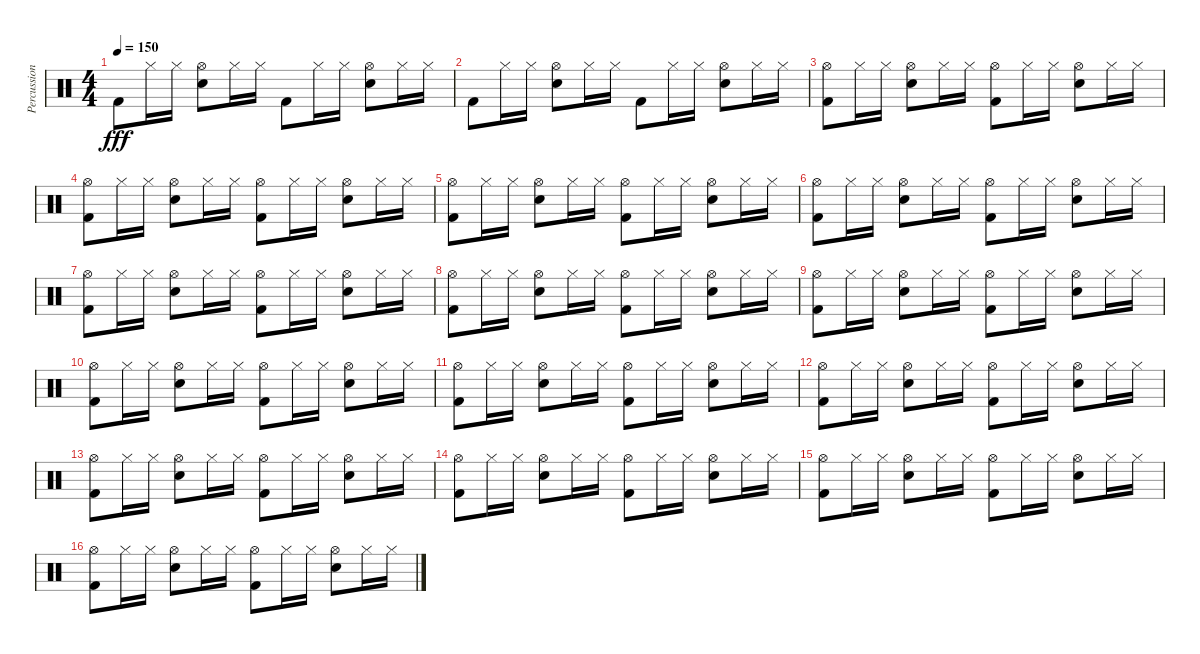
\track ("Percussion" "Percussion") {instrument percussion}
\staff {score}
\articulation defaults
\ts (4 4)
\tempo 150
\clef neutral
\ks c "Kick (hit) 2".8{dy fff} "Hi-Hat (closed)".16 "Hi-Hat (closed)".16
("Snare (hit) 2" "Hi-Hat (open)").8 "Hi-Hat (closed)".16 "Hi-Hat (closed)".16 "Kick (hit) 2".8 "Hi-Hat (closed)".16 "Hi-Hat (closed)".16 ("Snare (hit) 2" "Hi-Hat (open)").8 "Hi-Hat (closed)".16 "Hi-Hat (closed)".16 |
"Kick (hit) 2".8 "Hi-Hat (closed)".16 "Hi-Hat (closed)".16 ("Snare (hit) 2" "Hi-Hat (open)").8 "Hi-Hat (closed)".16 "Hi-Hat (closed)".16 "Kick (hit) 2".8 "Hi-Hat (closed)".16 "Hi-Hat (closed)".16 ("Snare (hit) 2" "Hi-Hat (open)").8 "Hi-Hat (closed)".16 "Hi-Hat (closed)".16 |
("Kick (hit) 2" "Hi-Hat (open)").8 "Hi-Hat (closed)".16 "Hi-Hat (closed)".16 ("Snare (hit) 2" "Hi-Hat (open)").8 "Hi-Hat (closed)".16 "Hi-Hat (closed)".16 ("Kick (hit) 2" "Hi-Hat (open)").8 "Hi-Hat (closed)".16 "Hi-Hat (closed)".16 ("Snare (hit) 2" "Hi-Hat (open)").8 "Hi-Hat (closed)".16 "Hi-Hat (closed)".16 |
("Kick (hit) 2" "Hi-Hat (open)").8 "Hi-Hat (closed)".16 "Hi-Hat (closed)".16 ("Snare (hit) 2" "Hi-Hat (open)").8 "Hi-Hat (closed)".16 "Hi-Hat (closed)".16 ("Kick (hit) 2" "Hi-Hat (open)").8 "Hi-Hat (closed)".16 "Hi-Hat (closed)".16 ("Snare (hit) 2" "Hi-Hat (open)").8 "Hi-Hat (closed)".16 "Hi-Hat (closed)".16 |
("Kick (hit) 2" "Hi-Hat (open)").8 "Hi-Hat (closed)".16 "Hi-Hat (closed)".16 ("Snare (hit) 2" "Hi-Hat (open)").8 "Hi-Hat (closed)".16 "Hi-Hat (closed)".16 ("Kick (hit) 2" "Hi-Hat (open)").8 "Hi-Hat (closed)".16 "Hi-Hat (closed)".16 ("Snare (hit) 2" "Hi-Hat (open)").8 "Hi-Hat (closed)".16 "Hi-Hat (closed)".16 |
("Kick (hit) 2" "Hi-Hat (open)").8 "Hi-Hat (closed)".16 "Hi-Hat (closed)".16 ("Snare (hit) 2" "Hi-Hat (open)").8 "Hi-Hat (closed)".16 "Hi-Hat (closed)".16 ("Kick (hit) 2" "Hi-Hat (open)").8 "Hi-Hat (closed)".16 "Hi-Hat (closed)".16 ("Snare (hit) 2" "Hi-Hat (open)").8 "Hi-Hat (closed)".16 "Hi-Hat (closed)".16 |
("Kick (hit) 2" "Hi-Hat (open)").8 "Hi-Hat (closed)".16 "Hi-Hat (closed)".16 ("Snare (hit) 2" "Hi-Hat (open)").8 "Hi-Hat (closed)".16 "Hi-Hat (closed)".16 ("Kick (hit) 2" "Hi-Hat (open)").8 "Hi-Hat (closed)".16 "Hi-Hat (closed)".16 ("Snare (hit) 2" "Hi-Hat (open)").8 "Hi-Hat (closed)".16 "Hi-Hat (closed)".16 |
("Kick (hit) 2" "Hi-Hat (open)").8 "Hi-Hat (closed)".16 "Hi-Hat (closed)".16 ("Snare (hit) 2" "Hi-Hat (open)").8 "Hi-Hat (closed)".16 "Hi-Hat (closed)".16 ("Kick (hit) 2" "Hi-Hat (open)").8 "Hi-Hat (closed)".16 "Hi-Hat (closed)".16 ("Snare (hit) 2" "Hi-Hat (open)").8 "Hi-Hat (closed)".16 "Hi-Hat (closed)".16 |
("Kick (hit) 2" "Hi-Hat (open)").8 "Hi-Hat (closed)".16 "Hi-Hat (closed)".16 ("Snare (hit) 2" "Hi-Hat (open)").8 "Hi-Hat (closed)".16 "Hi-Hat (closed)".16 ("Kick (hit) 2" "Hi-Hat (open)").8 "Hi-Hat (closed)".16 "Hi-Hat (closed)".16 ("Snare (hit) 2" "Hi-Hat (open)").8 "Hi-Hat (closed)".16 "Hi-Hat (closed)".16 |
("Kick (hit) 2" "Hi-Hat (open)").8 "Hi-Hat (closed)".16 "Hi-Hat (closed)".16 ("Snare (hit) 2" "Hi-Hat (open)").8 "Hi-Hat (closed)".16 "Hi-Hat (closed)".16 ("Kick (hit) 2" "Hi-Hat (open)").8 "Hi-Hat (closed)".16 "Hi-Hat (closed)".16 ("Snare (hit) 2" "Hi-Hat (open)").8 "Hi-Hat (closed)".16 "Hi-Hat (closed)".16 |
("Kick (hit) 2" "Hi-Hat (open)").8 "Hi-Hat (closed)".16 "Hi-Hat (closed)".16 ("Snare (hit) 2" "Hi-Hat (open)").8 "Hi-Hat (closed)".16 "Hi-Hat (closed)".16 ("Kick (hit) 2" "Hi-Hat (open)").8 "Hi-Hat (closed)".16 "Hi-Hat (closed)".16 ("Snare (hit) 2" "Hi-Hat (open)").8 "Hi-Hat (closed)".16 "Hi-Hat (closed)".16 |
("Kick (hit) 2" "Hi-Hat (open)").8 "Hi-Hat (closed)".16 "Hi-Hat (closed)".16 ("Snare (hit) 2" "Hi-Hat (open)").8 "Hi-Hat (closed)".16 "Hi-Hat (closed)".16 ("Kick (hit) 2" "Hi-Hat (open)").8 "Hi-Hat (closed)".16 "Hi-Hat (closed)".16 ("Snare (hit) 2" "Hi-Hat (open)").8 "Hi-Hat (closed)".16 "Hi-Hat (closed)".16 |
("Kick (hit) 2" "Hi-Hat (open)").8 "Hi-Hat (closed)".16 "Hi-Hat (closed)".16 ("Snare (hit) 2" "Hi-Hat (open)").8 "Hi-Hat (closed)".16 "Hi-Hat (closed)".16 ("Kick (hit) 2" "Hi-Hat (open)").8 "Hi-Hat (closed)".16 "Hi-Hat (closed)".16 ("Snare (hit) 2" "Hi-Hat (open)").8 "Hi-Hat (closed)".16 "Hi-Hat (closed)".16 |
("Kick (hit) 2" "Hi-Hat (open)").8 "Hi-Hat (closed)".16 "Hi-Hat (closed)".16 ("Snare (hit) 2" "Hi-Hat (open)").8 "Hi-Hat (closed)".16 "Hi-Hat (closed)".16 ("Kick (hit) 2" "Hi-Hat (open)").8 "Hi-Hat (closed)".16 "Hi-Hat (closed)".16 ("Snare (hit) 2" "Hi-Hat (open)").8 "Hi-Hat (closed)".16 "Hi-Hat (closed)".16 |
("Kick (hit) 2" "Hi-Hat (open)").8 "Hi-Hat (closed)".16 "Hi-Hat (closed)".16 ("Snare (hit) 2" "Hi-Hat (open)").8 "Hi-Hat (closed)".16 "Hi-Hat (closed)".16 ("Kick (hit) 2" "Hi-Hat (open)").8 "Hi-Hat (closed)".16 "Hi-Hat (closed)".16 ("Snare (hit) 2" "Hi-Hat (open)").8 "Hi-Hat (closed)".16 "Hi-Hat (closed)".16 |
("Kick (hit) 2" "Hi-Hat (open)").8 "Hi-Hat (closed)".16 "Hi-Hat (closed)".16 ("Snare (hit) 2" "Hi-Hat (open)").8 "Hi-Hat (closed)".16 "Hi-Hat (closed)".16 ("Kick (hit) 2" "Hi-Hat (open)").8 "Hi-Hat (closed)".16 "Hi-Hat (closed)".16 ("Snare (hit) 2" "Hi-Hat (open)").8 "Hi-Hat (closed)".16 "Hi-Hat (closed)".16
